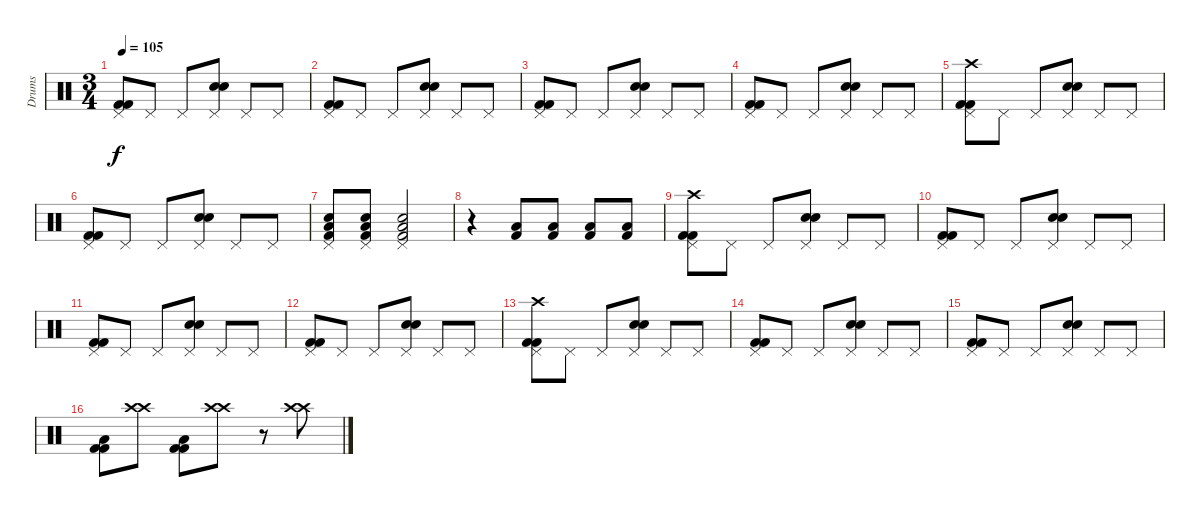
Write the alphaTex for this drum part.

\track ("Drums" "Drums") {instrument percussion}
\staff {score}
\articulation defaults
\ts (3 4)
\tempo 105
\clef neutral
\ks c
("Pedal Hi-Hat (hit)" "Kick (hit) 2" "Kick (hit) 2").8{dy f} "Pedal Hi-Hat (hit)".8 "Pedal Hi-Hat (hit)".8 ("Pedal Hi-Hat (hit)" "Electric Snare (hit)" "Electric Snare (hit)").8 "Pedal Hi-Hat (hit)".8 "Pedal Hi-Hat (hit)".8 |
("Pedal Hi-Hat (hit)" "Kick (hit) 2" "Kick (hit) 2").8 "Pedal Hi-Hat (hit)".8 "Pedal Hi-Hat (hit)".8 ("Pedal Hi-Hat (hit)" "Electric Snare (hit)" "Electric Snare (hit)").8 "Pedal Hi-Hat (hit)".8 "Pedal Hi-Hat (hit)".8 |
("Pedal Hi-Hat (hit)" "Kick (hit) 2" "Kick (hit) 2").8 "Pedal Hi-Hat (hit)".8 "Pedal Hi-Hat (hit)".8 ("Pedal Hi-Hat (hit)" "Electric Snare (hit)" "Electric Snare (hit)").8 "Pedal Hi-Hat (hit)".8 "Pedal Hi-Hat (hit)".8 |
("Pedal Hi-Hat (hit)" "Kick (hit) 2" "Kick (hit) 2").8 "Pedal Hi-Hat (hit)".8 "Pedal Hi-Hat (hit)".8 ("Pedal Hi-Hat (hit)" "Electric Snare (hit)" "Electric Snare (hit)").8 "Pedal Hi-Hat (hit)".8 "Pedal Hi-Hat (hit)".8 |
("Pedal Hi-Hat (hit)" "Crash high (hit)" "Kick (hit) 2" "Kick (hit) 2").8 "Pedal Hi-Hat (hit)".8 "Pedal Hi-Hat (hit)".8 ("Pedal Hi-Hat (hit)" "Electric Snare (hit)" "Electric Snare (hit)").8 "Pedal Hi-Hat (hit)".8 "Pedal Hi-Hat (hit)".8 |
("Pedal Hi-Hat (hit)" "Kick (hit) 2" "Kick (hit) 2").8 "Pedal Hi-Hat (hit)".8 "Pedal Hi-Hat (hit)".8 ("Pedal Hi-Hat (hit)" "Electric Snare (hit)" "Electric Snare (hit)").8 "Pedal Hi-Hat (hit)".8 "Pedal Hi-Hat (hit)".8 |
("Low Tom (hit)" "Pedal Hi-Hat (hit)" "Snare (hit) 2" "Kick (hit) 2").8 ("Low Tom (hit)" "Pedal Hi-Hat (hit)" "Snare (hit) 2" "Kick (hit) 2").8 ("Low Tom (hit)" "Pedal Hi-Hat (hit)" "Snare (hit) 2" "Kick (hit) 2").2 |
r.4 ("Low Floor Tom (hit)" "Kick (hit) 2").8 ("Low Floor Tom (hit)" "Kick (hit) 2").8 ("Low Floor Tom (hit)" "Kick (hit) 2").8 ("Low Floor Tom (hit)" "Kick (hit) 2").8 |
("Pedal Hi-Hat (hit)" "Crash high (hit)" "Kick (hit) 2" "Kick (hit) 2").8 "Pedal Hi-Hat (hit)".8 "Pedal Hi-Hat (hit)".8 ("Pedal Hi-Hat (hit)" "Electric Snare (hit)" "Electric Snare (hit)").8 "Pedal Hi-Hat (hit)".8 "Pedal Hi-Hat (hit)".8 |
("Pedal Hi-Hat (hit)" "Kick (hit) 2" "Kick (hit) 2").8 "Pedal Hi-Hat (hit)".8 "Pedal Hi-Hat (hit)".8 ("Pedal Hi-Hat (hit)" "Electric Snare (hit)" "Electric Snare (hit)").8 "Pedal Hi-Hat (hit)".8 "Pedal Hi-Hat (hit)".8 |
("Pedal Hi-Hat (hit)" "Kick (hit) 2" "Kick (hit) 2").8 "Pedal Hi-Hat (hit)".8 "Pedal Hi-Hat (hit)".8 ("Pedal Hi-Hat (hit)" "Electric Snare (hit)" "Electric Snare (hit)").8 "Pedal Hi-Hat (hit)".8 "Pedal Hi-Hat (hit)".8 |
("Pedal Hi-Hat (hit)" "Kick (hit) 2" "Kick (hit) 2").8 "Pedal Hi-Hat (hit)".8 "Pedal Hi-Hat (hit)".8 ("Pedal Hi-Hat (hit)" "Electric Snare (hit)" "Electric Snare (hit)").8 "Pedal Hi-Hat (hit)".8 "Pedal Hi-Hat (hit)".8 |
("Pedal Hi-Hat (hit)" "Crash high (hit)" "Kick (hit) 2" "Kick (hit) 2").8 "Pedal Hi-Hat (hit)".8 "Pedal Hi-Hat (hit)".8 ("Pedal Hi-Hat (hit)" "Electric Snare (hit)" "Electric Snare (hit)").8 "Pedal Hi-Hat (hit)".8 "Pedal Hi-Hat (hit)".8 |
("Pedal Hi-Hat (hit)" "Kick (hit) 2" "Kick (hit) 2").8 "Pedal Hi-Hat (hit)".8 "Pedal Hi-Hat (hit)".8 ("Pedal Hi-Hat (hit)" "Electric Snare (hit)" "Electric Snare (hit)").8 "Pedal Hi-Hat (hit)".8 "Pedal Hi-Hat (hit)".8 |
("Pedal Hi-Hat (hit)" "Kick (hit) 2" "Kick (hit) 2").8 "Pedal Hi-Hat (hit)".8 "Pedal Hi-Hat (hit)".8 ("Pedal Hi-Hat (hit)" "Electric Snare (hit)" "Electric Snare (hit)").8 "Pedal Hi-Hat (hit)".8 "Pedal Hi-Hat (hit)".8 |
("Low Floor Tom (hit)" "Kick (hit) 2" "Kick (hit) 2").8 ("Crash high (hit)" "Crash high (hit)").8 ("Low Floor Tom (hit)" "Kick (hit) 2" "Kick (hit) 2").8 ("Crash high (hit)" "Crash high (hit)").8 r.8 ("Crash high (hit)" "Crash high (hit)").8
